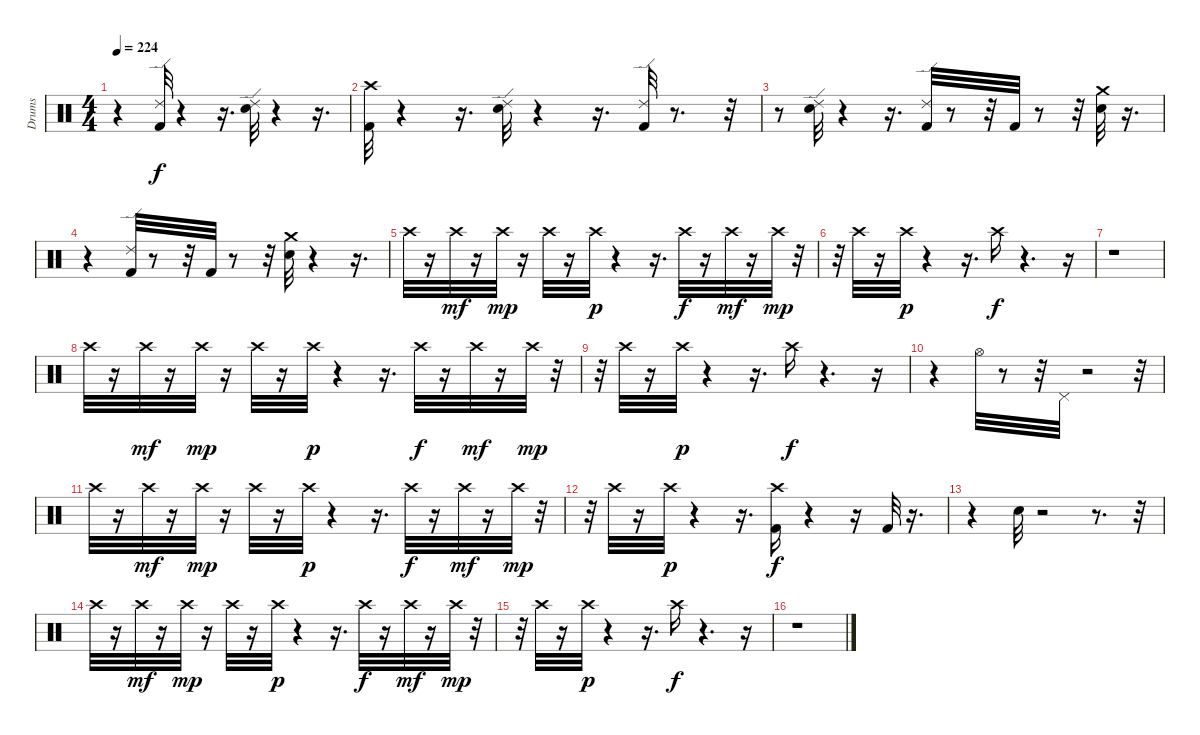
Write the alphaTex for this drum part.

\track ("Drums" "Drums") {instrument percussion}
\staff {score}
\articulation defaults
\ts (4 4)
\tempo 224
\clef neutral
\ks c
r.4{dy f} ("Ride (edge) 2" "Kick (hit) 2").32 r.4 r.16{d} ("Ride (edge) 2" "Snare (hit) 2").32 r.4 r.16{d} |
("Crash high (hit)" "Kick (hit) 2").32 r.4 r.16{d} ("Ride (edge) 2" "Snare (hit) 2").32 r.4 r.16{d} ("Kick (hit) 2" "Ride (edge) 2").32 r.8{d} r.32 |
r.8 ("Snare (hit) 2" "Ride (edge) 2").32 r.4 r.16{d} ("Ride (edge) 2" "Kick (hit) 2").32 r.8 r.32 "Kick (hit) 2".32 r.8 r.32 ("Snare (hit) 2" "Crash medium (hit)").32 r.16{d} |
r.4 ("Ride (edge) 2" "Kick (hit) 2").32 r.8 r.32 "Kick (hit) 2".32 r.8 r.32 ("Crash medium (hit)" "Snare (hit) 2").32 r.4 r.16{d} |
"Crash high (hit)".32 r.16 "Crash high (hit)".32{dy mf} r.16 "Crash high (hit)".32{dy mp} r.16 "Crash high (hit)".32 r.16 "Crash high (hit)".32{dy p} r.4 r.16{d} "Crash high (hit)".32{dy f} r.16 "Crash high (hit)".32{dy mf} r.16 "Crash high (hit)".32{dy mp} r.32 |
r.32 "Crash high (hit)".32 r.16 "Crash high (hit)".32{dy p} r.4 r.16{d} "Crash high (hit)".16{dy f} r.4{d} r.16 |
r.1 |
"Crash high (hit)".32 r.16 "Crash high (hit)".32{dy mf} r.16 "Crash high (hit)".32{dy mp} r.16 "Crash high (hit)".32 r.16 "Crash high (hit)".32{dy p} r.4 r.16{d} "Crash high (hit)".32{dy f} r.16 "Crash high (hit)".32{dy mf} r.16 "Crash high (hit)".32{dy mp} r.32 |
r.32 "Crash high (hit)".32 r.16 "Crash high (hit)".32{dy p} r.4 r.16{d} "Crash high (hit)".16{dy f} r.4{d} r.16 |
r.4 "Hi-Hat (open)".32 r.8 r.32 "Pedal Hi-Hat (hit)".32 r.2 r.32 |
"Crash high (hit)".32 r.16 "Crash high (hit)".32{dy mf} r.16 "Crash high (hit)".32{dy mp} r.16 "Crash high (hit)".32 r.16 "Crash high (hit)".32{dy p} r.4 r.16{d} "Crash high (hit)".32{dy f} r.16 "Crash high (hit)".32{dy mf} r.16 "Crash high (hit)".32{dy mp} r.32 |
r.32 "Crash high (hit)".32 r.16 "Crash high (hit)".32{dy p} r.4 r.16{d} ("Kick (hit) 2" "Crash high (hit)").16{dy f} r.4 r.16 "Kick (hit) 2".32 r.16{d} |
r.4 "Snare (hit) 2".32 r.2 r.8{d} r.32 |
"Crash high (hit)".32 r.16 "Crash high (hit)".32{dy mf} r.16 "Crash high (hit)".32{dy mp} r.16 "Crash high (hit)".32 r.16 "Crash high (hit)".32{dy p} r.4 r.16{d} "Crash high (hit)".32{dy f} r.16 "Crash high (hit)".32{dy mf} r.16 "Crash high (hit)".32{dy mp} r.32 |
r.32 "Crash high (hit)".32 r.16 "Crash high (hit)".32{dy p} r.4 r.16{d} "Crash high (hit)".16{dy f} r.4{d} r.16 |
r.1
